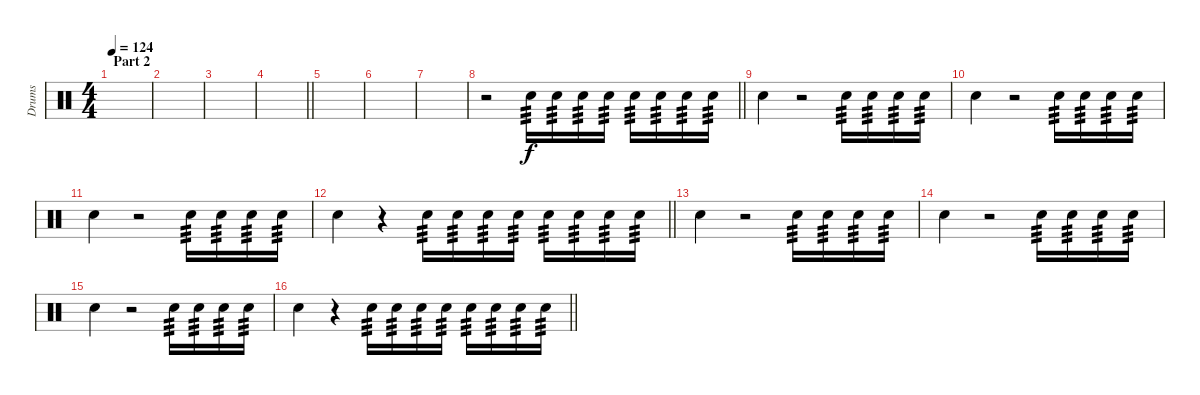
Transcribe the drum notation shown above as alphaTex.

\track ("Drums" "Drums") {instrument percussion}
\staff {score}
\articulation defaults
\ts (4 4)
\section ("" "Part 2")
\tempo 124
\clef neutral
\ks c
|
|
|
\barLineRight lightlight
|
\section ("" "")
|
|
|
\barLineRight lightlight
r.2 "Snare (hit) 2".16{tp 3} "Snare (hit) 2".16{tp 3} "Snare (hit) 2".16{tp 3} "Snare (hit) 2".16{tp 3} "Snare (hit) 2".16{tp 3} "Snare (hit) 2".16{tp 3} "Snare (hit) 2".16{tp 3} "Snare (hit) 2".16{tp 3} |
\section ("" "")
"Snare (hit) 2".4 r.2 "Snare (hit) 2".16{tp 3} "Snare (hit) 2".16{tp 3} "Snare (hit) 2".16{tp 3} "Snare (hit) 2".16{tp 3} |
"Snare (hit) 2".4 r.2 "Snare (hit) 2".16{tp 3} "Snare (hit) 2".16{tp 3} "Snare (hit) 2".16{tp 3} "Snare (hit) 2".16{tp 3} |
"Snare (hit) 2".4 r.2 "Snare (hit) 2".16{tp 3} "Snare (hit) 2".16{tp 3} "Snare (hit) 2".16{tp 3} "Snare (hit) 2".16{tp 3} |
\barLineRight lightlight "Snare (hit) 2".4
r.4 "Snare (hit) 2".16{tp 3} "Snare (hit) 2".16{tp 3} "Snare (hit) 2".16{tp 3} "Snare (hit) 2".16{tp 3} "Snare (hit) 2".16{tp 3} "Snare (hit) 2".16{tp 3} "Snare (hit) 2".16{tp 3} "Snare (hit) 2".16{tp 3} |
\section ("" "")
"Snare (hit) 2".4 r.2 "Snare (hit) 2".16{tp 3} "Snare (hit) 2".16{tp 3} "Snare (hit) 2".16{tp 3} "Snare (hit) 2".16{tp 3} |
"Snare (hit) 2".4 r.2 "Snare (hit) 2".16{tp 3} "Snare (hit) 2".16{tp 3} "Snare (hit) 2".16{tp 3} "Snare (hit) 2".16{tp 3} |
"Snare (hit) 2".4 r.2 "Snare (hit) 2".16{tp 3} "Snare (hit) 2".16{tp 3} "Snare (hit) 2".16{tp 3} "Snare (hit) 2".16{tp 3} |
\barLineRight lightlight "Snare (hit) 2".4
r.4 "Snare (hit) 2".16{tp 3} "Snare (hit) 2".16{tp 3} "Snare (hit) 2".16{tp 3} "Snare (hit) 2".16{tp 3} "Snare (hit) 2".16{tp 3} "Snare (hit) 2".16{tp 3} "Snare (hit) 2".16{tp 3} "Snare (hit) 2".16{tp 3}
